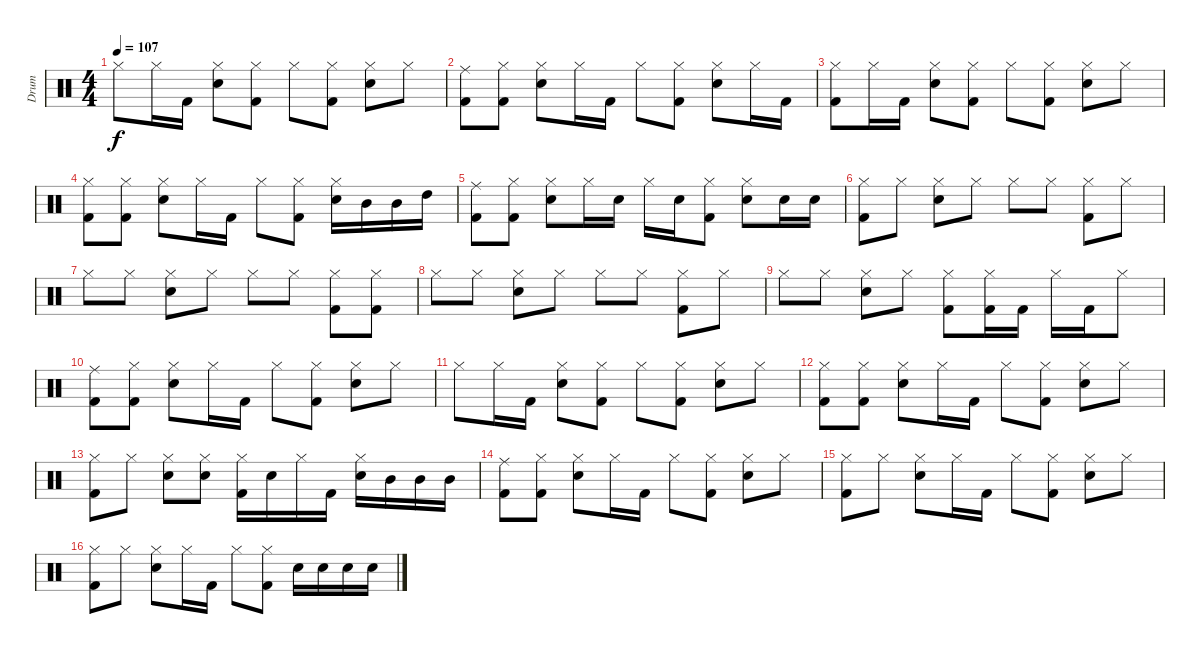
\track ("Drum" "Drum") {instrument percussion}
\staff {score}
\articulation defaults
\ts (4 4)
\tempo 107
\clef neutral
\ks c "Hi-Hat (closed)".8{dy f} "Hi-Hat (closed)".16 "Kick (hit) 2".16
("Hi-Hat (closed)" "Snare (hit) 2").8 ("Hi-Hat (closed)" "Kick (hit) 2").8 "Hi-Hat (closed)".8 ("Hi-Hat (closed)" "Kick (hit) 2").8 ("Hi-Hat (closed)" "Snare (hit) 2").8 "Hi-Hat (closed)".8 |
("Ride (middle)" "Kick (hit) 2").8 ("Hi-Hat (closed)" "Kick (hit) 2").8 ("Hi-Hat (closed)" "Snare (hit) 2").8 "Hi-Hat (closed)".16 "Kick (hit) 2".16 "Hi-Hat (closed)".8 ("Hi-Hat (closed)" "Kick (hit) 2").8 ("Hi-Hat (closed)" "Snare (hit) 2").8 "Hi-Hat (closed)".16 "Kick (hit) 2".16 |
("Hi-Hat (closed)" "Kick (hit) 2").8 "Hi-Hat (closed)".16 "Kick (hit) 2".16 ("Hi-Hat (closed)" "Snare (hit) 2").8 ("Hi-Hat (closed)" "Kick (hit) 2").8 "Hi-Hat (closed)".8 ("Hi-Hat (closed)" "Kick (hit) 2").8 ("Hi-Hat (closed)" "Snare (hit) 2").8 "Hi-Hat (closed)".8 |
("Hi-Hat (closed)" "Kick (hit) 2").8 ("Hi-Hat (closed)" "Kick (hit) 2").8 ("Hi-Hat (closed)" "Snare (hit) 2").8 "Hi-Hat (closed)".16 "Kick (hit) 2".16 "Hi-Hat (closed)".8 ("Hi-Hat (closed)" "Kick (hit) 2").8 ("Hi-Hat (closed)" "Snare (hit) 2").16 "Mid Tom (hit)".16 "Mid Tom (hit)".16 "High Tom (hit)".16 |
("Ride (middle)" "Kick (hit) 2").8 ("Hi-Hat (closed)" "Kick (hit) 2").8 ("Hi-Hat (closed)" "Snare (hit) 2").8 "Hi-Hat (closed)".16 "Snare (hit) 2".16 "Hi-Hat (closed)".16 "Snare (hit) 2".16 ("Hi-Hat (closed)" "Kick (hit) 2").8 ("Hi-Hat (closed)" "Snare (hit) 2").8 "Snare (hit) 2".16 "Snare (hit) 2".16 |
("Hi-Hat (closed)" "Kick (hit) 2").8 "Hi-Hat (closed)".8 ("Hi-Hat (closed)" "Snare (hit) 2").8 "Hi-Hat (closed)".8 "Hi-Hat (closed)".8 "Hi-Hat (closed)".8 ("Hi-Hat (closed)" "Kick (hit) 2").8 "Hi-Hat (closed)".8 |
"Hi-Hat (closed)".8 "Hi-Hat (closed)".8 ("Hi-Hat (closed)" "Snare (hit) 2").8 "Hi-Hat (closed)".8 "Hi-Hat (closed)".8 "Hi-Hat (closed)".8 ("Hi-Hat (closed)" "Kick (hit) 2").8 ("Hi-Hat (closed)" "Kick (hit) 2").8 |
"Hi-Hat (closed)".8 "Hi-Hat (closed)".8 ("Hi-Hat (closed)" "Snare (hit) 2").8 "Hi-Hat (closed)".8 "Hi-Hat (closed)".8 "Hi-Hat (closed)".8 ("Hi-Hat (closed)" "Kick (hit) 2").8 "Hi-Hat (closed)".8 |
"Hi-Hat (closed)".8 "Hi-Hat (closed)".8 ("Hi-Hat (closed)" "Snare (hit) 2").8 "Hi-Hat (closed)".8 ("Hi-Hat (closed)" "Kick (hit) 2").8 ("Hi-Hat (closed)" "Kick (hit) 2").16 "Kick (hit) 2".16 "Hi-Hat (closed)".16 "Kick (hit) 2".16 "Hi-Hat (closed)".8 |
("Ride (middle)" "Kick (hit) 2").8 ("Hi-Hat (closed)" "Kick (hit) 2").8 ("Hi-Hat (closed)" "Snare (hit) 2").8 "Hi-Hat (closed)".16 "Kick (hit) 2".16 "Hi-Hat (closed)".8 ("Hi-Hat (closed)" "Kick (hit) 2").8 ("Hi-Hat (closed)" "Snare (hit) 2").8 "Hi-Hat (closed)".8 |
"Hi-Hat (closed)".8 "Hi-Hat (closed)".16 "Kick (hit) 2".16 ("Hi-Hat (closed)" "Snare (hit) 2").8 ("Hi-Hat (closed)" "Kick (hit) 2").8 "Hi-Hat (closed)".8 ("Hi-Hat (closed)" "Kick (hit) 2").8 ("Hi-Hat (closed)" "Snare (hit) 2").8 "Hi-Hat (closed)".8 |
("Hi-Hat (closed)" "Kick (hit) 2").8 ("Hi-Hat (closed)" "Kick (hit) 2").8 ("Hi-Hat (closed)" "Snare (hit) 2").8 "Hi-Hat (closed)".16 "Kick (hit) 2".16 "Hi-Hat (closed)".8 ("Hi-Hat (closed)" "Kick (hit) 2").8 ("Hi-Hat (closed)" "Snare (hit) 2").8 "Hi-Hat (closed)".8 |
("Hi-Hat (closed)" "Kick (hit) 2").8 "Hi-Hat (closed)".8 ("Hi-Hat (closed)" "Snare (hit) 2").8 ("Hi-Hat (closed)" "Snare (hit) 2").8 ("Hi-Hat (closed)" "Kick (hit) 2").16 "Snare (hit) 2".16 "Hi-Hat (closed)".16 "Kick (hit) 2".16 ("Hi-Hat (closed)" "Snare (hit) 2").16 "Mid Tom (hit)".16 "Mid Tom (hit)".16 "Mid Tom (hit)".16 |
("Ride (middle)" "Kick (hit) 2").8 ("Hi-Hat (closed)" "Kick (hit) 2").8 ("Hi-Hat (closed)" "Snare (hit) 2").8 "Hi-Hat (closed)".16 "Kick (hit) 2".16 "Hi-Hat (closed)".8 ("Hi-Hat (closed)" "Kick (hit) 2").8 ("Hi-Hat (closed)" "Snare (hit) 2").8 "Hi-Hat (closed)".8 |
("Hi-Hat (closed)" "Kick (hit) 2").8 "Hi-Hat (closed)".8 ("Hi-Hat (closed)" "Snare (hit) 2").8 "Hi-Hat (closed)".16 "Kick (hit) 2".16 "Hi-Hat (closed)".8 ("Hi-Hat (closed)" "Kick (hit) 2").8 ("Hi-Hat (closed)" "Snare (hit) 2").8 "Hi-Hat (closed)".8 |
("Hi-Hat (closed)" "Kick (hit) 2").8 "Hi-Hat (closed)".8 ("Hi-Hat (closed)" "Snare (hit) 2").8 "Hi-Hat (closed)".16 "Kick (hit) 2".16 "Hi-Hat (closed)".8 ("Hi-Hat (closed)" "Kick (hit) 2").8 "Snare (hit) 2".16 "Snare (hit) 2".16 "Snare (hit) 2".16 "Snare (hit) 2".16
